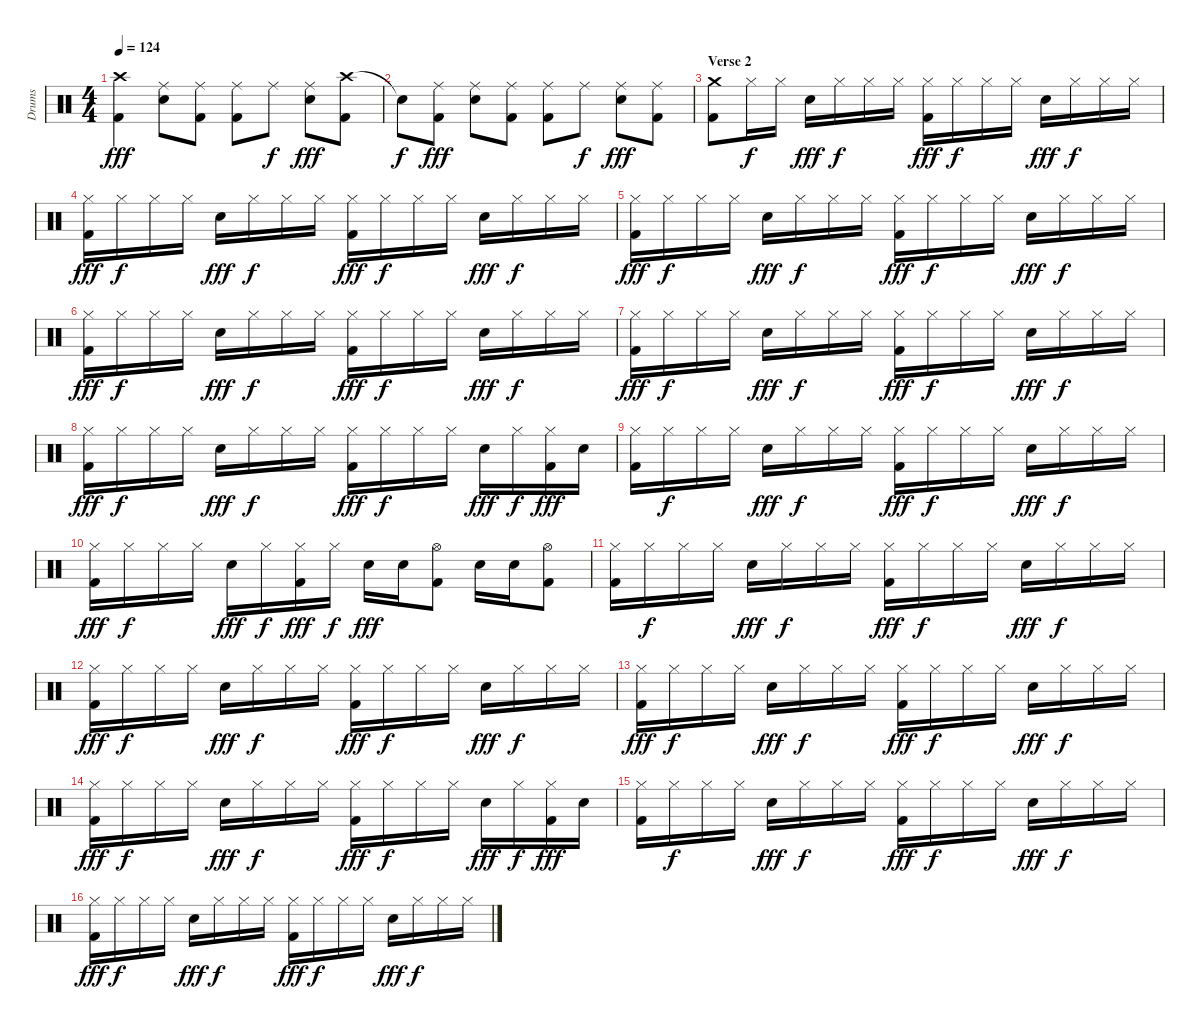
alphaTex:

\track ("Drums" "Drums") {instrument percussion}
\staff {score}
\articulation defaults
\ts (4 4)
\tempo 124
\clef neutral
\ks c
("Crash high (hit)" "Kick (hit) 2").4{dy fff} ("Ride (middle)" "Electric Snare (hit)").8 ("Ride (middle)" "Kick (hit) 2").8 ("Ride (middle)" "Kick (hit) 2").8 "Ride (middle)".8{dy f} ("Ride (middle)" "Electric Snare (hit)").8{dy fff} ("Crash high (hit)" "Kick (hit) 2").8 |
"Snare (hit)"{t}.8{dy f} ("Ride (middle)" "Kick (hit) 2").8{dy fff} ("Ride (middle)" "Electric Snare (hit)").8 ("Ride (middle)" "Kick (hit) 2").8 ("Ride (middle)" "Kick (hit) 2").8 "Ride (middle)".8{dy f} ("Ride (middle)" "Electric Snare (hit)").8{dy fff} ("Ride (middle)" "Kick (hit) 2").8 |
\section ("" "Verse 2")
("Crash medium (hit)" "Kick (hit) 2").8 "Hi-Hat (closed)".16{dy f} "Hi-Hat (closed)".16 "Electric Snare (hit)".16{dy fff} "Hi-Hat (closed)".16{dy f} "Hi-Hat (closed)".16 "Hi-Hat (closed)".16 ("Hi-Hat (closed)" "Kick (hit) 2").16{dy fff} "Hi-Hat (closed)".16{dy f} "Hi-Hat (closed)".16 "Hi-Hat (closed)".16 "Electric Snare (hit)".16{dy fff} "Hi-Hat (closed)".16{dy f} "Hi-Hat (closed)".16 "Hi-Hat (closed)".16 |
("Hi-Hat (closed)" "Kick (hit) 2").16{dy fff} "Hi-Hat (closed)".16{dy f} "Hi-Hat (closed)".16 "Hi-Hat (closed)".16 "Electric Snare (hit)".16{dy fff} "Hi-Hat (closed)".16{dy f} "Hi-Hat (closed)".16 "Hi-Hat (closed)".16 ("Hi-Hat (closed)" "Kick (hit) 2").16{dy fff} "Hi-Hat (closed)".16{dy f} "Hi-Hat (closed)".16 "Hi-Hat (closed)".16 "Electric Snare (hit)".16{dy fff} "Hi-Hat (closed)".16{dy f} "Hi-Hat (closed)".16 "Hi-Hat (closed)".16 |
("Hi-Hat (closed)" "Kick (hit) 2").16{dy fff} "Hi-Hat (closed)".16{dy f} "Hi-Hat (closed)".16 "Hi-Hat (closed)".16 "Electric Snare (hit)".16{dy fff} "Hi-Hat (closed)".16{dy f} "Hi-Hat (closed)".16 "Hi-Hat (closed)".16 ("Hi-Hat (closed)" "Kick (hit) 2").16{dy fff} "Hi-Hat (closed)".16{dy f} "Hi-Hat (closed)".16 "Hi-Hat (closed)".16 "Electric Snare (hit)".16{dy fff} "Hi-Hat (closed)".16{dy f} "Hi-Hat (closed)".16 "Hi-Hat (closed)".16 |
("Hi-Hat (closed)" "Kick (hit) 2").16{dy fff} "Hi-Hat (closed)".16{dy f} "Hi-Hat (closed)".16 "Hi-Hat (closed)".16 "Electric Snare (hit)".16{dy fff} "Hi-Hat (closed)".16{dy f} "Hi-Hat (closed)".16 "Hi-Hat (closed)".16 ("Hi-Hat (closed)" "Kick (hit) 2").16{dy fff} "Hi-Hat (closed)".16{dy f} "Hi-Hat (closed)".16 "Hi-Hat (closed)".16 "Electric Snare (hit)".16{dy fff} "Hi-Hat (closed)".16{dy f} "Hi-Hat (closed)".16 "Hi-Hat (closed)".16 |
("Hi-Hat (closed)" "Kick (hit) 2").16{dy fff} "Hi-Hat (closed)".16{dy f} "Hi-Hat (closed)".16 "Hi-Hat (closed)".16 "Electric Snare (hit)".16{dy fff} "Hi-Hat (closed)".16{dy f} "Hi-Hat (closed)".16 "Hi-Hat (closed)".16 ("Hi-Hat (closed)" "Kick (hit) 2").16{dy fff} "Hi-Hat (closed)".16{dy f} "Hi-Hat (closed)".16 "Hi-Hat (closed)".16 "Electric Snare (hit)".16{dy fff} "Hi-Hat (closed)".16{dy f} "Hi-Hat (closed)".16 "Hi-Hat (closed)".16 |
("Hi-Hat (closed)" "Kick (hit) 2").16{dy fff} "Hi-Hat (closed)".16{dy f} "Hi-Hat (closed)".16 "Hi-Hat (closed)".16 "Electric Snare (hit)".16{dy fff} "Hi-Hat (closed)".16{dy f} "Hi-Hat (closed)".16 "Hi-Hat (closed)".16 ("Hi-Hat (closed)" "Kick (hit) 2").16{dy fff} "Hi-Hat (closed)".16{dy f} "Hi-Hat (closed)".16 "Hi-Hat (closed)".16 "Electric Snare (hit)".16{dy fff} "Hi-Hat (closed)".16{dy f} ("Hi-Hat (closed)" "Kick (hit) 2").16{dy fff} "Electric Snare (hit)".16 |
("Hi-Hat (closed)" "Kick (hit) 2").16 "Hi-Hat (closed)".16{dy f} "Hi-Hat (closed)".16 "Hi-Hat (closed)".16 "Electric Snare (hit)".16{dy fff} "Hi-Hat (closed)".16{dy f} "Hi-Hat (closed)".16 "Hi-Hat (closed)".16 ("Hi-Hat (closed)" "Kick (hit) 2").16{dy fff} "Hi-Hat (closed)".16{dy f} "Hi-Hat (closed)".16 "Hi-Hat (closed)".16 "Electric Snare (hit)".16{dy fff} "Hi-Hat (closed)".16{dy f} "Hi-Hat (closed)".16 "Hi-Hat (closed)".16 |
("Hi-Hat (closed)" "Kick (hit) 2").16{dy fff} "Hi-Hat (closed)".16{dy f} "Hi-Hat (closed)".16 "Hi-Hat (closed)".16 "Electric Snare (hit)".16{dy fff} "Hi-Hat (closed)".16{dy f} ("Hi-Hat (closed)" "Kick (hit) 2").16{dy fff} "Hi-Hat (closed)".16{dy f} "Electric Snare (hit)".16{dy fff} "Electric Snare (hit)".16 ("Hi-Hat (open)" "Kick (hit) 2").8 "Electric Snare (hit)".16 "Electric Snare (hit)".16 ("Hi-Hat (open)" "Kick (hit) 2").8 |
("Hi-Hat (closed)" "Kick (hit) 2").16 "Hi-Hat (closed)".16{dy f} "Hi-Hat (closed)".16 "Hi-Hat (closed)".16 "Electric Snare (hit)".16{dy fff} "Hi-Hat (closed)".16{dy f} "Hi-Hat (closed)".16 "Hi-Hat (closed)".16 ("Hi-Hat (closed)" "Kick (hit) 2").16{dy fff} "Hi-Hat (closed)".16{dy f} "Hi-Hat (closed)".16 "Hi-Hat (closed)".16 "Electric Snare (hit)".16{dy fff} "Hi-Hat (closed)".16{dy f} "Hi-Hat (closed)".16 "Hi-Hat (closed)".16 |
("Hi-Hat (closed)" "Kick (hit) 2").16{dy fff} "Hi-Hat (closed)".16{dy f} "Hi-Hat (closed)".16 "Hi-Hat (closed)".16 "Electric Snare (hit)".16{dy fff} "Hi-Hat (closed)".16{dy f} "Hi-Hat (closed)".16 "Hi-Hat (closed)".16 ("Hi-Hat (closed)" "Kick (hit) 2").16{dy fff} "Hi-Hat (closed)".16{dy f} "Hi-Hat (closed)".16 "Hi-Hat (closed)".16 "Electric Snare (hit)".16{dy fff} "Hi-Hat (closed)".16{dy f} "Hi-Hat (closed)".16 "Hi-Hat (closed)".16 |
("Hi-Hat (closed)" "Kick (hit) 2").16{dy fff} "Hi-Hat (closed)".16{dy f} "Hi-Hat (closed)".16 "Hi-Hat (closed)".16 "Electric Snare (hit)".16{dy fff} "Hi-Hat (closed)".16{dy f} "Hi-Hat (closed)".16 "Hi-Hat (closed)".16 ("Hi-Hat (closed)" "Kick (hit) 2").16{dy fff} "Hi-Hat (closed)".16{dy f} "Hi-Hat (closed)".16 "Hi-Hat (closed)".16 "Electric Snare (hit)".16{dy fff} "Hi-Hat (closed)".16{dy f} "Hi-Hat (closed)".16 "Hi-Hat (closed)".16 |
("Hi-Hat (closed)" "Kick (hit) 2").16{dy fff} "Hi-Hat (closed)".16{dy f} "Hi-Hat (closed)".16 "Hi-Hat (closed)".16 "Electric Snare (hit)".16{dy fff} "Hi-Hat (closed)".16{dy f} "Hi-Hat (closed)".16 "Hi-Hat (closed)".16 ("Hi-Hat (closed)" "Kick (hit) 2").16{dy fff} "Hi-Hat (closed)".16{dy f} "Hi-Hat (closed)".16 "Hi-Hat (closed)".16 "Electric Snare (hit)".16{dy fff} "Hi-Hat (closed)".16{dy f} ("Hi-Hat (closed)" "Kick (hit) 2").16{dy fff} "Electric Snare (hit)".16 |
("Hi-Hat (closed)" "Kick (hit) 2").16 "Hi-Hat (closed)".16{dy f} "Hi-Hat (closed)".16 "Hi-Hat (closed)".16 "Electric Snare (hit)".16{dy fff} "Hi-Hat (closed)".16{dy f} "Hi-Hat (closed)".16 "Hi-Hat (closed)".16 ("Hi-Hat (closed)" "Kick (hit) 2").16{dy fff} "Hi-Hat (closed)".16{dy f} "Hi-Hat (closed)".16 "Hi-Hat (closed)".16 "Electric Snare (hit)".16{dy fff} "Hi-Hat (closed)".16{dy f} "Hi-Hat (closed)".16 "Hi-Hat (closed)".16 |
("Hi-Hat (closed)" "Kick (hit) 2").16{dy fff} "Hi-Hat (closed)".16{dy f} "Hi-Hat (closed)".16 "Hi-Hat (closed)".16 "Electric Snare (hit)".16{dy fff} "Hi-Hat (closed)".16{dy f} "Hi-Hat (closed)".16 "Hi-Hat (closed)".16 ("Hi-Hat (closed)" "Kick (hit) 2").16{dy fff} "Hi-Hat (closed)".16{dy f} "Hi-Hat (closed)".16 "Hi-Hat (closed)".16 "Electric Snare (hit)".16{dy fff} "Hi-Hat (closed)".16{dy f} "Hi-Hat (closed)".16 "Hi-Hat (closed)".16
